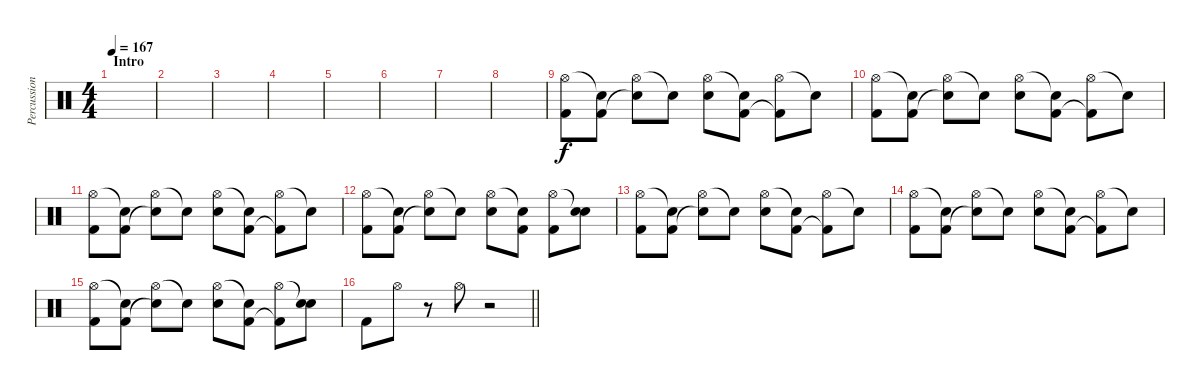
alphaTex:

\track ("Percussion" "Percussion") {instrument percussion}
\staff {score}
\articulation defaults
\ts (4 4)
\section ("" "Intro")
\tempo 167
\clef neutral
\ks c
|
|
|
|
|
|
|
|
("Hi-Hat (open)" "Kick (hit) 2").8 ("Snare (hit)"{t} "Kick (hit) 2").8 ("Hi-Hat (open)" "Snare (hit)"{t}).8 "Snare (hit)"{t}.8 ("Hi-Hat (open)" "Electric Snare (hit)").8 ("Snare (hit)"{t} "Kick (hit) 2").8 ("Hi-Hat (open)" "Kick (hit) 2"{t}).8 "Snare (hit)"{t}.8 |
("Hi-Hat (open)" "Kick (hit) 2").8 ("Snare (hit)"{t} "Kick (hit) 2").8 ("Hi-Hat (open)" "Snare (hit)"{t}).8 "Snare (hit)"{t}.8 ("Hi-Hat (open)" "Electric Snare (hit)").8 ("Snare (hit)"{t} "Kick (hit) 2").8 ("Hi-Hat (open)" "Kick (hit) 2"{t}).8 "Snare (hit)"{t}.8 |
("Hi-Hat (open)" "Kick (hit) 2").8 ("Snare (hit)"{t} "Kick (hit) 2").8 ("Hi-Hat (open)" "Snare (hit)"{t}).8 "Snare (hit)"{t}.8 ("Hi-Hat (open)" "Electric Snare (hit)").8 ("Snare (hit)"{t} "Kick (hit) 2").8 ("Hi-Hat (open)" "Kick (hit) 2"{t}).8 "Snare (hit)"{t}.8 |
("Hi-Hat (open)" "Kick (hit) 2").8 ("Snare (hit)"{t} "Kick (hit) 2").8 ("Hi-Hat (open)" "Snare (hit)"{t}).8 "Snare (hit)"{t}.8 ("Hi-Hat (open)" "Electric Snare (hit)").8 ("Snare (hit)"{t} "Kick (hit) 2").8 ("Hi-Hat (open)" "Kick (hit) 2").8 ("Snare (hit)"{t} "Electric Snare (hit)").8 |
("Hi-Hat (open)" "Kick (hit) 2").8 ("Snare (hit)"{t} "Kick (hit) 2").8 ("Hi-Hat (open)" "Snare (hit)"{t}).8 "Snare (hit)"{t}.8 ("Hi-Hat (open)" "Electric Snare (hit)").8 ("Snare (hit)"{t} "Kick (hit) 2").8 ("Hi-Hat (open)" "Kick (hit) 2"{t}).8 "Snare (hit)"{t}.8 |
("Hi-Hat (open)" "Kick (hit) 2").8 ("Snare (hit)"{t} "Kick (hit) 2").8 ("Hi-Hat (open)" "Snare (hit)"{t}).8 "Snare (hit)"{t}.8 ("Hi-Hat (open)" "Electric Snare (hit)").8 ("Snare (hit)"{t} "Kick (hit) 2").8 ("Hi-Hat (open)" "Kick (hit) 2"{t}).8 "Snare (hit)"{t}.8 |
("Hi-Hat (open)" "Kick (hit) 2").8 ("Snare (hit)"{t} "Kick (hit) 2").8 ("Hi-Hat (open)" "Snare (hit)"{t}).8 "Snare (hit)"{t}.8 ("Hi-Hat (open)" "Electric Snare (hit)").8 ("Snare (hit)"{t} "Kick (hit) 2").8 ("Hi-Hat (open)" "Kick (hit) 2"{t}).8 ("Snare (hit)"{t} "Electric Snare (hit)").8 |
\barLineRight lightlight "Kick (hit) 2".8 "Hi-Hat (open)".8
r.8 "Hi-Hat (open)".8 r.2
